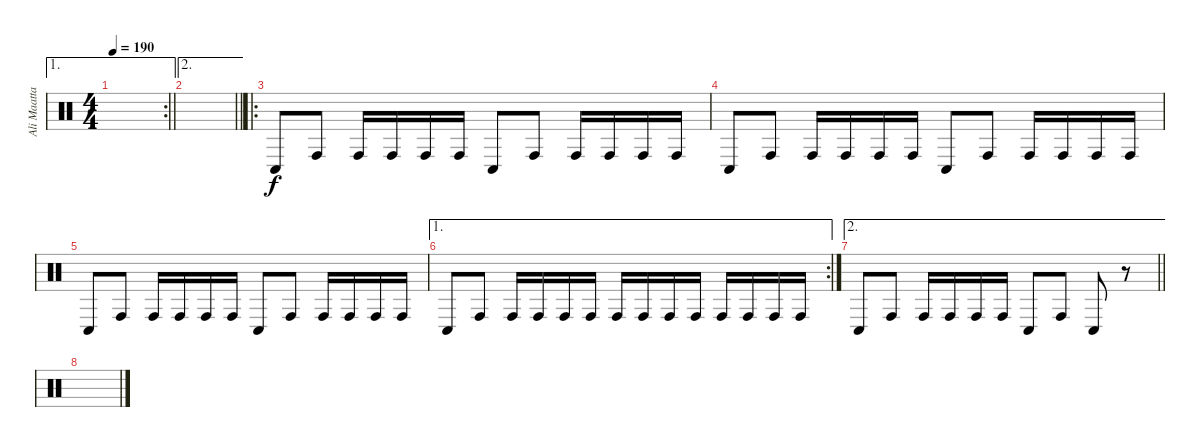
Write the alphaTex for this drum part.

\track ("Ali Maatta" "Ali Maatta") {instrument percussion}
\staff {score}
\articulation defaults
\ae 1
\rc 2
\ts (4 4)
\tempo 190
\clef neutral
\barLineRight lightlight
\ks c
|
\ae 2
\barLineRight lightlight
|
\ro "Conga low (hit)".8 "Conga high (hit)".8 "Conga high (hit)".16 "Conga high (hit)".16 "Conga high (hit)".16 "Conga high (hit)".16 "Conga low (hit)".8 "Conga high (hit)".8 "Conga high (hit)".16 "Conga high (hit)".16 "Conga high (hit)".16 "Conga high (hit)".16
|
"Conga low (hit)".8 "Conga high (hit)".8 "Conga high (hit)".16 "Conga high (hit)".16 "Conga high (hit)".16 "Conga high (hit)".16 "Conga low (hit)".8 "Conga high (hit)".8 "Conga high (hit)".16 "Conga high (hit)".16 "Conga high (hit)".16 "Conga high (hit)".16 |
"Conga low (hit)".8 "Conga high (hit)".8 "Conga high (hit)".16 "Conga high (hit)".16 "Conga high (hit)".16 "Conga high (hit)".16 "Conga low (hit)".8 "Conga high (hit)".8 "Conga high (hit)".16 "Conga high (hit)".16 "Conga high (hit)".16 "Conga high (hit)".16 |
\ae 1
\rc 2 "Conga low (hit)".8 "Conga high (hit)".8 "Conga high (hit)".16 "Conga high (hit)".16 "Conga high (hit)".16 "Conga high (hit)".16 "Conga high (hit)".16 "Conga high (hit)".16 "Conga high (hit)".16 "Conga high (hit)".16 "Conga high (hit)".16 "Conga high (hit)".16 "Conga high (hit)".16 "Conga high (hit)".16
|
\ae 2
\barLineRight lightlight "Conga low (hit)".8 "Conga high (hit)".8 "Conga high (hit)".16 "Conga high (hit)".16 "Conga high (hit)".16 "Conga high (hit)".16 "Conga low (hit)".8 "Conga high (hit)".8 "Conga low (hit)".8
r.8 |
\section ("" "")
